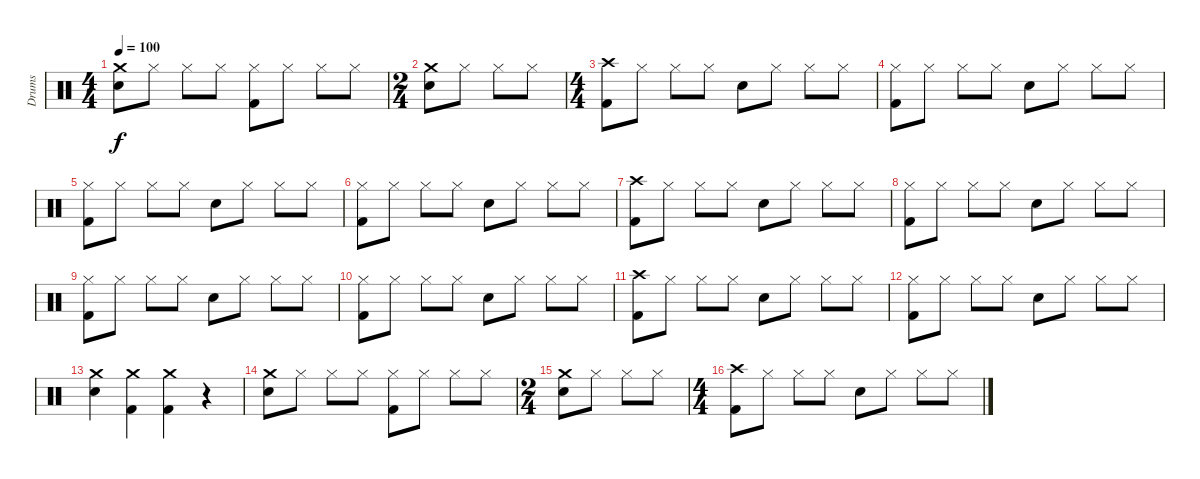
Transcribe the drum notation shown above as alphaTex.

\track ("Drums" "Drums") {instrument percussion}
\staff {score}
\articulation defaults
\ts (4 4)
\tempo 100
\clef neutral
\ks c
("Snare (hit) 2" "Crash medium (hit)").8{dy f} "Hi-Hat (closed)".8 "Hi-Hat (closed)".8 "Hi-Hat (closed)".8 ("Hi-Hat (closed)" "Kick (hit) 2").8 "Hi-Hat (closed)".8 "Hi-Hat (closed)".8 "Hi-Hat (closed)".8 |
\ts (2 4)
("Snare (hit) 2" "Crash medium (hit)").8 "Hi-Hat (closed)".8 "Hi-Hat (closed)".8 "Hi-Hat (closed)".8 |
\ts (4 4)
("Crash high (hit)" "Kick (hit) 2").8 "Hi-Hat (closed)".8 "Hi-Hat (closed)".8 "Hi-Hat (closed)".8 "Snare (hit) 2".8 "Hi-Hat (closed)".8 "Hi-Hat (closed)".8 "Hi-Hat (closed)".8 |
("Hi-Hat (closed)" "Kick (hit) 2").8 "Hi-Hat (closed)".8 "Hi-Hat (closed)".8 "Hi-Hat (closed)".8 "Snare (hit) 2".8 "Hi-Hat (closed)".8 "Hi-Hat (closed)".8 "Hi-Hat (closed)".8 |
("Hi-Hat (closed)" "Kick (hit) 2").8 "Hi-Hat (closed)".8 "Hi-Hat (closed)".8 "Hi-Hat (closed)".8 "Snare (hit) 2".8 "Hi-Hat (closed)".8 "Hi-Hat (closed)".8 "Hi-Hat (closed)".8 |
("Hi-Hat (closed)" "Kick (hit) 2").8 "Hi-Hat (closed)".8 "Hi-Hat (closed)".8 "Hi-Hat (closed)".8 "Snare (hit) 2".8 "Hi-Hat (closed)".8 "Hi-Hat (closed)".8 "Hi-Hat (closed)".8 |
("Crash high (hit)" "Kick (hit) 2").8 "Hi-Hat (closed)".8 "Hi-Hat (closed)".8 "Hi-Hat (closed)".8 "Snare (hit) 2".8 "Hi-Hat (closed)".8 "Hi-Hat (closed)".8 "Hi-Hat (closed)".8 |
("Hi-Hat (closed)" "Kick (hit) 2").8 "Hi-Hat (closed)".8 "Hi-Hat (closed)".8 "Hi-Hat (closed)".8 "Snare (hit) 2".8 "Hi-Hat (closed)".8 "Hi-Hat (closed)".8 "Hi-Hat (closed)".8 |
("Hi-Hat (closed)" "Kick (hit) 2").8 "Hi-Hat (closed)".8 "Hi-Hat (closed)".8 "Hi-Hat (closed)".8 "Snare (hit) 2".8 "Hi-Hat (closed)".8 "Hi-Hat (closed)".8 "Hi-Hat (closed)".8 |
("Hi-Hat (closed)" "Kick (hit) 2").8 "Hi-Hat (closed)".8 "Hi-Hat (closed)".8 "Hi-Hat (closed)".8 "Snare (hit) 2".8 "Hi-Hat (closed)".8 "Hi-Hat (closed)".8 "Hi-Hat (closed)".8 |
("Crash high (hit)" "Kick (hit) 2").8 "Hi-Hat (closed)".8 "Hi-Hat (closed)".8 "Hi-Hat (closed)".8 "Snare (hit) 2".8 "Hi-Hat (closed)".8 "Hi-Hat (closed)".8 "Hi-Hat (closed)".8 |
("Hi-Hat (closed)" "Kick (hit) 2").8 "Hi-Hat (closed)".8 "Hi-Hat (closed)".8 "Hi-Hat (closed)".8 "Snare (hit) 2".8 "Hi-Hat (closed)".8 "Hi-Hat (closed)".8 "Hi-Hat (closed)".8 |
("Snare (hit) 2" "Crash medium (hit)").4 ("Crash medium (hit)" "Kick (hit) 2").4 ("Crash medium (hit)" "Kick (hit) 2").4 r.4 |
("Snare (hit) 2" "Crash medium (hit)").8 "Hi-Hat (closed)".8 "Hi-Hat (closed)".8 "Hi-Hat (closed)".8 ("Hi-Hat (closed)" "Kick (hit) 2").8 "Hi-Hat (closed)".8 "Hi-Hat (closed)".8 "Hi-Hat (closed)".8 |
\ts (2 4)
("Snare (hit) 2" "Crash medium (hit)").8 "Hi-Hat (closed)".8 "Hi-Hat (closed)".8 "Hi-Hat (closed)".8 |
\ts (4 4)
("Crash high (hit)" "Kick (hit) 2").8 "Hi-Hat (closed)".8 "Hi-Hat (closed)".8 "Hi-Hat (closed)".8 "Snare (hit) 2".8 "Hi-Hat (closed)".8 "Hi-Hat (closed)".8 "Hi-Hat (closed)".8
